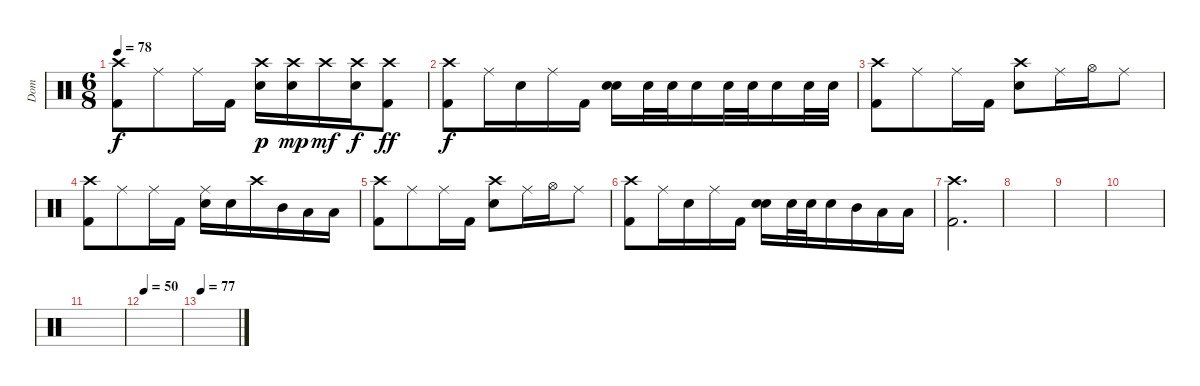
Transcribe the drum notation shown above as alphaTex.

\track ("Dom" "Dom") {instrument percussion}
\staff {score}
\articulation defaults
\ts (6 8)
\tempo 78
\clef neutral
\ks c
("Crash high (hit)" "Kick (hit) 2").8{dy f} "Ride (middle)".8 "Ride (middle)".16 "Kick (hit) 2".16 ("Crash high (hit)" "Electric Snare (hit)").16{dy p} ("Crash high (hit)" "Electric Snare (hit)").16{dy mp} "Crash high (hit)".16{dy mf} ("Crash high (hit)" "Electric Snare (hit)").16{dy f} ("Crash high (hit)" "Kick (hit) 2").8{dy ff} |
("Crash high (hit)" "Kick (hit) 2").8{dy f} "Ride (middle)".16 "Electric Snare (hit)".16 "Ride (middle)".16 "Kick (hit) 2".16 ("Electric Snare (hit)" "Electric Snare (hit)").16{bd 60} "Electric Snare (hit)".32 "Electric Snare (hit)".32 "Electric Snare (hit)".16 "Electric Snare (hit)".32 "Electric Snare (hit)".32 "Electric Snare (hit)".16 "Electric Snare (hit)".32 "Electric Snare (hit)".32 |
("Crash high (hit)" "Kick (hit) 2").8 "Ride (middle)".8 "Ride (middle)".16 "Kick (hit) 2".16 ("Crash high (hit)" "Electric Snare (hit)").8 "Ride (middle)".16 "Hi-Hat (open)".16 "Ride (middle)".8 |
("Crash high (hit)" "Kick (hit) 2").8 "Ride (middle)".8 "Ride (middle)".16 "Kick (hit) 2".16 ("Ride (middle)" "Electric Snare (hit)").16 "Electric Snare (hit)".16 "Crash high (hit)".16 "Mid Tom (hit)".16 "Low Tom (hit)".16 "Low Floor Tom (hit)".16 |
("Crash high (hit)" "Kick (hit) 2").8 "Ride (middle)".8 "Ride (middle)".16 "Kick (hit) 2".16 ("Crash high (hit)" "Electric Snare (hit)").8 "Ride (middle)".16 "Hi-Hat (open)".16 "Ride (middle)".8 |
("Crash high (hit)" "Kick (hit) 2").8 "Ride (middle)".16 "Electric Snare (hit)".16 "Ride (middle)".16 "Kick (hit) 2".16 ("Electric Snare (hit)" "Electric Snare (hit)").16{bd 60} "Electric Snare (hit)".32 "Electric Snare (hit)".32 "Electric Snare (hit)".16 "Mid Tom (hit)".16 "Low Tom (hit)".16 "Low Floor Tom (hit)".16 |
("Crash high (hit)" "Kick (hit) 2").2{d} |
|
|
|
|
\tempo 50
|
\tempo 77
